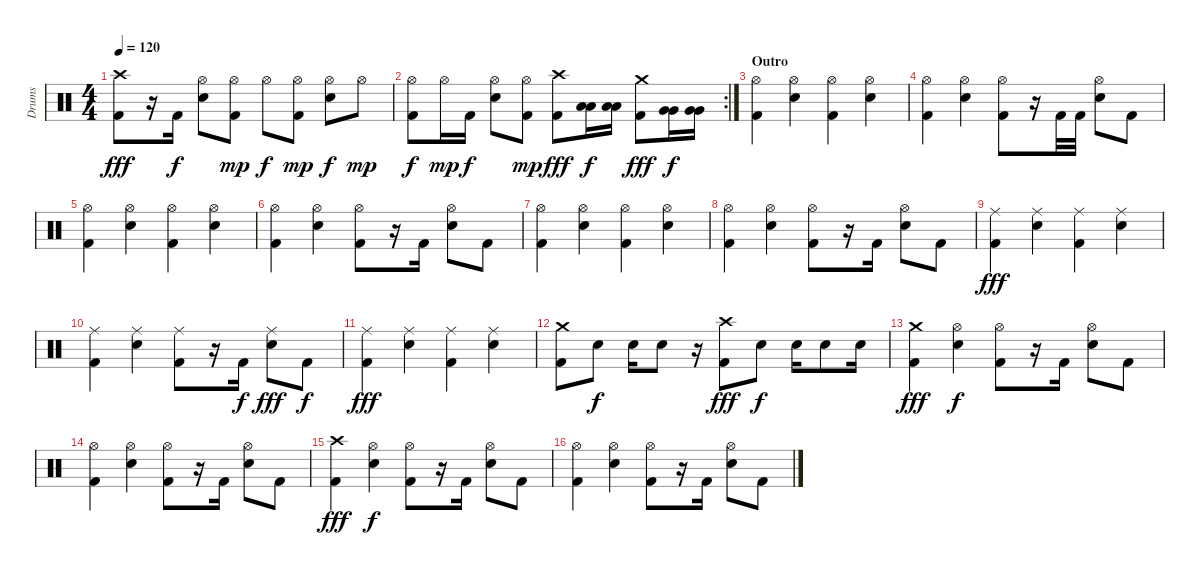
\track ("Drums" "Drums") {instrument percussion}
\staff {score}
\articulation defaults
\ts (4 4)
\tempo 120
\clef neutral
\ks c
("Kick (hit) 2" "Crash high (hit)").8{dy fff} r.16 "Kick (hit) 2".16{dy f} ("Electric Snare (hit)" "Hi-Hat (open)").8 ("Kick (hit) 2" "Hi-Hat (open)").8{dy mp} "Hi-Hat (open)".8{dy f} ("Kick (hit) 2" "Hi-Hat (open)").8{dy mp} ("Electric Snare (hit)" "Hi-Hat (open)").8{dy f} "Hi-Hat (open)".8{dy mp} |
\rc 2
("Kick (hit) 2" "Hi-Hat (open)").8{dy f} "Hi-Hat (open)".16{dy mp} "Kick (hit) 2".16{dy f} ("Electric Snare (hit)" "Hi-Hat (open)").8 ("Kick (hit) 2" "Hi-Hat (open)").8{dy mp} ("Kick (hit) 2" "Crash high (hit)").8{dy fff} ("Low Tom (hit)" "Low Tom (hit)").16{dy f} ("Low Tom (hit)" "Low Tom (hit)").16 ("Kick (hit) 2" "Crash medium (hit)").8{dy fff} ("Very Low Tom (hit)" "Very Low Tom (hit)").16{dy f} ("Very Low Tom (hit)" "Very Low Tom (hit)").16 |
\section ("" "Outro")
("Kick (hit) 2" "Hi-Hat (open)").4 ("Electric Snare (hit)" "Hi-Hat (open)").4 ("Kick (hit) 2" "Hi-Hat (open)").4 ("Electric Snare (hit)" "Hi-Hat (open)").4 |
("Kick (hit) 2" "Hi-Hat (open)").4 ("Electric Snare (hit)" "Hi-Hat (open)").4 ("Kick (hit) 2" "Hi-Hat (open)").8 r.16 "Kick (hit) 2".32 "Kick (hit) 2".32 ("Electric Snare (hit)" "Hi-Hat (open)").8 "Kick (hit) 2".8 |
("Kick (hit) 2" "Hi-Hat (open)").4 ("Electric Snare (hit)" "Hi-Hat (open)").4 ("Kick (hit) 2" "Hi-Hat (open)").4 ("Electric Snare (hit)" "Hi-Hat (open)").4 |
("Kick (hit) 2" "Hi-Hat (open)").4 ("Electric Snare (hit)" "Hi-Hat (open)").4 ("Kick (hit) 2" "Hi-Hat (open)").8 r.16 "Kick (hit) 2".16 ("Electric Snare (hit)" "Hi-Hat (open)").8 "Kick (hit) 2".8 |
("Kick (hit) 2" "Hi-Hat (open)").4 ("Electric Snare (hit)" "Hi-Hat (open)").4 ("Kick (hit) 2" "Hi-Hat (open)").4 ("Electric Snare (hit)" "Hi-Hat (open)").4 |
("Kick (hit) 2" "Hi-Hat (open)").4 ("Electric Snare (hit)" "Hi-Hat (open)").4 ("Kick (hit) 2" "Hi-Hat (open)").8 r.16 "Kick (hit) 2".16 ("Electric Snare (hit)" "Hi-Hat (open)").8 "Kick (hit) 2".8 |
("Kick (hit) 2" "Ride (middle)").4{dy fff} ("Electric Snare (hit)" "Ride (middle)").4 ("Kick (hit) 2" "Ride (middle)").4 ("Electric Snare (hit)" "Ride (middle)").4 |
("Kick (hit) 2" "Ride (middle)").4 ("Electric Snare (hit)" "Ride (middle)").4 ("Kick (hit) 2" "Ride (middle)").8 r.16 "Kick (hit) 2".16{dy f} ("Electric Snare (hit)" "Ride (middle)").8{dy fff} "Kick (hit) 2".8{dy f} |
("Kick (hit) 2" "Ride (middle)").4{dy fff} ("Electric Snare (hit)" "Ride (middle)").4 ("Kick (hit) 2" "Ride (middle)").4 ("Electric Snare (hit)" "Ride (middle)").4 |
("Kick (hit) 2" "Crash medium (hit)").8 "Electric Snare (hit)".8{dy f} "Electric Snare (hit)".16 "Electric Snare (hit)".8 r.16 ("Kick (hit) 2" "Crash high (hit)").8{dy fff} "Electric Snare (hit)".8{dy f} "Electric Snare (hit)".16 "Electric Snare (hit)".8 "Electric Snare (hit)".16 |
("Kick (hit) 2" "Crash medium (hit)").4{dy fff} ("Electric Snare (hit)" "Hi-Hat (open)").4{dy f} ("Kick (hit) 2" "Hi-Hat (open)").8 r.16 "Kick (hit) 2".16 ("Electric Snare (hit)" "Hi-Hat (open)").8 "Kick (hit) 2".8 |
("Kick (hit) 2" "Hi-Hat (open)").4 ("Electric Snare (hit)" "Hi-Hat (open)").4 ("Kick (hit) 2" "Hi-Hat (open)").8 r.16 "Kick (hit) 2".16 ("Electric Snare (hit)" "Hi-Hat (open)").8 "Kick (hit) 2".8 |
("Kick (hit) 2" "Crash high (hit)").4{dy fff} ("Electric Snare (hit)" "Hi-Hat (open)").4{dy f} ("Kick (hit) 2" "Hi-Hat (open)").8 r.16 "Kick (hit) 2".16 ("Electric Snare (hit)" "Hi-Hat (open)").8 "Kick (hit) 2".8 |
("Kick (hit) 2" "Hi-Hat (open)").4 ("Electric Snare (hit)" "Hi-Hat (open)").4 ("Kick (hit) 2" "Hi-Hat (open)").8 r.16 "Kick (hit) 2".16 ("Electric Snare (hit)" "Hi-Hat (open)").8 "Kick (hit) 2".8
